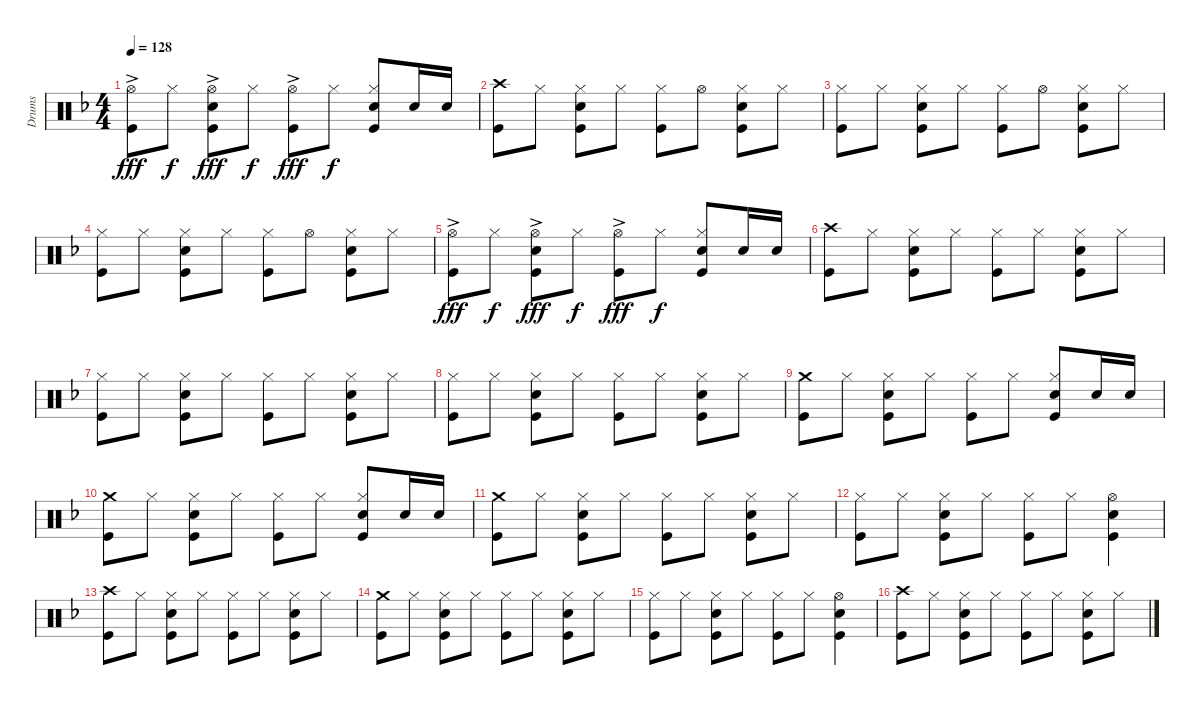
\track ("Drums" "Drums") {instrument percussion}
\staff {score}
\articulation defaults
\ts (4 4)
\tempo 128
\clef neutral
\ks f
("Hi-Hat (open)"{ac} "Kick (hit)").8{dy fff} "Hi-Hat (closed)".8{dy f} ("Hi-Hat (open)"{ac} "Snare (hit) 2" "Kick (hit)").8{dy fff} "Hi-Hat (closed)".8{dy f} ("Hi-Hat (open)"{ac} "Kick (hit)").8{dy fff} "Hi-Hat (closed)".8{dy f} ("Hi-Hat (closed)" "Snare (hit) 2" "Kick (hit)").8 "Snare (hit) 2".16 "Snare (hit) 2".16 |
("Crash high (hit)" "Kick (hit)").8 "Hi-Hat (closed)".8 ("Hi-Hat (closed)" "Snare (hit) 2" "Kick (hit)").8 "Hi-Hat (closed)".8 ("Hi-Hat (closed)" "Kick (hit)").8 "Hi-Hat (open)".8 ("Hi-Hat (closed)" "Snare (hit) 2" "Kick (hit)").8 "Hi-Hat (closed)".8 |
("Hi-Hat (closed)" "Kick (hit)").8 "Hi-Hat (closed)".8 ("Hi-Hat (closed)" "Snare (hit) 2" "Kick (hit)").8 "Hi-Hat (closed)".8 ("Hi-Hat (closed)" "Kick (hit)").8 "Hi-Hat (open)".8 ("Hi-Hat (closed)" "Snare (hit) 2" "Kick (hit)").8 "Hi-Hat (closed)".8 |
("Hi-Hat (closed)" "Kick (hit)").8 "Hi-Hat (closed)".8 ("Hi-Hat (closed)" "Snare (hit) 2" "Kick (hit)").8 "Hi-Hat (closed)".8 ("Hi-Hat (closed)" "Kick (hit)").8 "Hi-Hat (open)".8 ("Hi-Hat (closed)" "Snare (hit) 2" "Kick (hit)").8 "Hi-Hat (closed)".8 |
("Hi-Hat (open)"{ac} "Kick (hit)").8{dy fff} "Hi-Hat (closed)".8{dy f} ("Hi-Hat (open)"{ac} "Snare (hit) 2" "Kick (hit)").8{dy fff} "Hi-Hat (closed)".8{dy f} ("Hi-Hat (open)"{ac} "Kick (hit)").8{dy fff} "Hi-Hat (closed)".8{dy f} ("Hi-Hat (closed)" "Snare (hit) 2" "Kick (hit)").8 "Snare (hit) 2".16 "Snare (hit) 2".16 |
("Crash high (hit)" "Kick (hit)").8 "Hi-Hat (closed)".8 ("Hi-Hat (closed)" "Snare (hit) 2" "Kick (hit)").8 "Hi-Hat (closed)".8 ("Hi-Hat (closed)" "Kick (hit)").8 "Hi-Hat (closed)".8 ("Hi-Hat (closed)" "Snare (hit) 2" "Kick (hit)").8 "Hi-Hat (closed)".8 |
("Hi-Hat (closed)" "Kick (hit)").8 "Hi-Hat (closed)".8 ("Hi-Hat (closed)" "Snare (hit) 2" "Kick (hit)").8 "Hi-Hat (closed)".8 ("Hi-Hat (closed)" "Kick (hit)").8 "Hi-Hat (closed)".8 ("Hi-Hat (closed)" "Snare (hit) 2" "Kick (hit)").8 "Hi-Hat (closed)".8 |
("Hi-Hat (closed)" "Kick (hit)").8 "Hi-Hat (closed)".8 ("Hi-Hat (closed)" "Snare (hit) 2" "Kick (hit)").8 "Hi-Hat (closed)".8 ("Hi-Hat (closed)" "Kick (hit)").8 "Hi-Hat (closed)".8 ("Hi-Hat (closed)" "Snare (hit) 2" "Kick (hit)").8 "Hi-Hat (closed)".8 |
("Crash medium (hit)" "Kick (hit)").8 "Hi-Hat (closed)".8 ("Hi-Hat (closed)" "Snare (hit) 2" "Kick (hit)").8 "Hi-Hat (closed)".8 ("Hi-Hat (closed)" "Kick (hit)").8 "Hi-Hat (closed)".8 ("Hi-Hat (closed)" "Snare (hit) 2" "Kick (hit)").8 "Snare (hit) 2".16 "Snare (hit) 2".16 |
("Crash medium (hit)" "Kick (hit)").8 "Hi-Hat (closed)".8 ("Hi-Hat (closed)" "Snare (hit) 2" "Kick (hit)").8 "Hi-Hat (closed)".8 ("Hi-Hat (closed)" "Kick (hit)").8 "Hi-Hat (closed)".8 ("Hi-Hat (closed)" "Snare (hit) 2" "Kick (hit)").8 "Snare (hit) 2".16 "Snare (hit) 2".16 |
("Crash medium (hit)" "Kick (hit)").8 "Hi-Hat (closed)".8 ("Hi-Hat (closed)" "Snare (hit) 2" "Kick (hit)").8 "Hi-Hat (closed)".8 ("Hi-Hat (closed)" "Kick (hit)").8 "Hi-Hat (closed)".8 ("Hi-Hat (closed)" "Snare (hit) 2" "Kick (hit)").8 "Hi-Hat (closed)".8 |
("Hi-Hat (closed)" "Kick (hit)").8 "Hi-Hat (closed)".8 ("Hi-Hat (closed)" "Snare (hit) 2" "Kick (hit)").8 "Hi-Hat (closed)".8 ("Hi-Hat (closed)" "Kick (hit)").8 "Hi-Hat (closed)".8 ("Hi-Hat (open)" "Snare (hit) 2" "Kick (hit)").4 |
("Crash high (hit)" "Kick (hit)").8 "Hi-Hat (closed)".8 ("Hi-Hat (closed)" "Snare (hit) 2" "Kick (hit)").8 "Hi-Hat (closed)".8 ("Hi-Hat (closed)" "Kick (hit)").8 "Hi-Hat (closed)".8 ("Hi-Hat (closed)" "Snare (hit) 2" "Kick (hit)").8 "Hi-Hat (closed)".8 |
("Crash medium (hit)" "Kick (hit)").8 "Hi-Hat (closed)".8 ("Hi-Hat (closed)" "Snare (hit) 2" "Kick (hit)").8 "Hi-Hat (closed)".8 ("Hi-Hat (closed)" "Kick (hit)").8 "Hi-Hat (closed)".8 ("Hi-Hat (closed)" "Snare (hit) 2" "Kick (hit)").8 "Hi-Hat (closed)".8 |
("Hi-Hat (closed)" "Kick (hit)").8 "Hi-Hat (closed)".8 ("Hi-Hat (closed)" "Snare (hit) 2" "Kick (hit)").8 "Hi-Hat (closed)".8 ("Hi-Hat (closed)" "Kick (hit)").8 "Hi-Hat (closed)".8 ("Hi-Hat (open)" "Snare (hit) 2" "Kick (hit)").4 |
("Crash high (hit)" "Kick (hit)").8 "Hi-Hat (closed)".8 ("Hi-Hat (closed)" "Snare (hit) 2" "Kick (hit)").8 "Hi-Hat (closed)".8 ("Hi-Hat (closed)" "Kick (hit)").8 "Hi-Hat (closed)".8 ("Hi-Hat (closed)" "Snare (hit) 2" "Kick (hit)").8 "Hi-Hat (closed)".8
